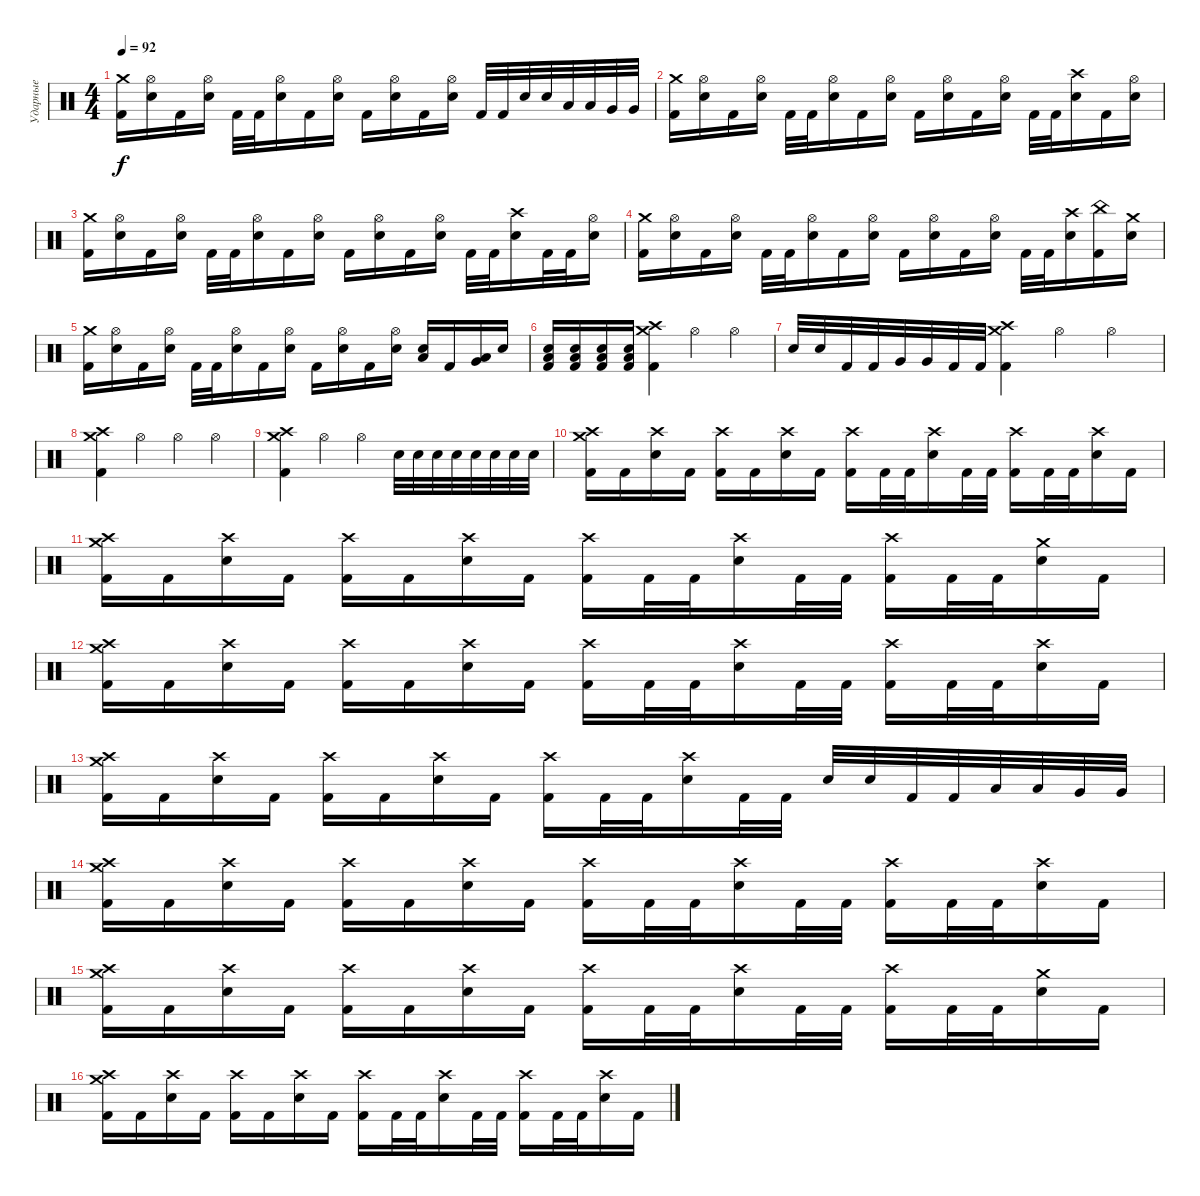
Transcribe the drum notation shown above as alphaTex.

\track ("Ударные" "Ударные") {instrument percussion}
\staff {score}
\articulation defaults
\ts (4 4)
\tempo 92
\clef neutral
\ks c
("Crash medium (hit)" "Kick (hit) 2").16{dy f} ("Hi-Hat (open)" "Electric Snare (hit)").16 "Kick (hit) 2".16 ("Hi-Hat (open)" "Electric Snare (hit)").16 "Kick (hit) 2".32 "Kick (hit) 2".32 ("Hi-Hat (open)" "Electric Snare (hit)").16 "Kick (hit) 2".16 ("Hi-Hat (open)" "Electric Snare (hit)").16 "Kick (hit) 2".16 ("Hi-Hat (open)" "Electric Snare (hit)").16 "Kick (hit) 2".16 ("Hi-Hat (open)" "Electric Snare (hit)").16 "Kick (hit) 2".32 "Kick (hit) 2".32 "Electric Snare (hit)".32 "Electric Snare (hit)".32 "Low Tom (hit)".32 "Low Tom (hit)".32 "Very Low Tom (hit)".32 "Very Low Tom (hit)".32 |
("Crash medium (hit)" "Kick (hit) 2").16 ("Hi-Hat (open)" "Electric Snare (hit)").16 "Kick (hit) 2".16 ("Hi-Hat (open)" "Electric Snare (hit)").16 "Kick (hit) 2".32 "Kick (hit) 2".32 ("Hi-Hat (open)" "Electric Snare (hit)").16 "Kick (hit) 2".16 ("Hi-Hat (open)" "Electric Snare (hit)").16 "Kick (hit) 2".16 ("Hi-Hat (open)" "Electric Snare (hit)").16 "Kick (hit) 2".16 ("Hi-Hat (open)" "Electric Snare (hit)").16 "Kick (hit) 2".32 "Kick (hit) 2".32 ("Crash high (hit)" "Electric Snare (hit)").16 "Kick (hit) 2".16 ("Hi-Hat (open)" "Electric Snare (hit)").16 |
("Crash medium (hit)" "Kick (hit) 2").16 ("Hi-Hat (open)" "Electric Snare (hit)").16 "Kick (hit) 2".16 ("Hi-Hat (open)" "Electric Snare (hit)").16 "Kick (hit) 2".32 "Kick (hit) 2".32 ("Hi-Hat (open)" "Electric Snare (hit)").16 "Kick (hit) 2".16 ("Hi-Hat (open)" "Electric Snare (hit)").16 "Kick (hit) 2".16 ("Hi-Hat (open)" "Electric Snare (hit)").16 "Kick (hit) 2".16 ("Hi-Hat (open)" "Electric Snare (hit)").16 "Kick (hit) 2".32 "Kick (hit) 2".32 ("Crash high (hit)" "Electric Snare (hit)").16 "Kick (hit) 2".32 "Kick (hit) 2".32 ("Hi-Hat (open)" "Electric Snare (hit)").16 |
("Crash medium (hit)" "Kick (hit) 2").16 ("Hi-Hat (open)" "Electric Snare (hit)").16 "Kick (hit) 2".16 ("Hi-Hat (open)" "Electric Snare (hit)").16 "Kick (hit) 2".32 "Kick (hit) 2".32 ("Hi-Hat (open)" "Electric Snare (hit)").16 "Kick (hit) 2".16 ("Hi-Hat (open)" "Electric Snare (hit)").16 "Kick (hit) 2".16 ("Hi-Hat (open)" "Electric Snare (hit)").16 "Kick (hit) 2".16 ("Hi-Hat (open)" "Electric Snare (hit)").16 "Kick (hit) 2".32 "Kick (hit) 2".32 ("Crash high (hit)" "Electric Snare (hit)").16 ("China (hit)" "Kick (hit) 2").16 ("Crash medium (hit)" "Electric Snare (hit)").16 |
("Crash medium (hit)" "Kick (hit) 2").16 ("Hi-Hat (open)" "Electric Snare (hit)").16 "Kick (hit) 2".16 ("Hi-Hat (open)" "Electric Snare (hit)").16 "Kick (hit) 2".32 "Kick (hit) 2".32 ("Hi-Hat (open)" "Electric Snare (hit)").16 "Kick (hit) 2".16 ("Hi-Hat (open)" "Electric Snare (hit)").16 "Kick (hit) 2".16 ("Hi-Hat (open)" "Electric Snare (hit)").16 "Kick (hit) 2".16 ("Hi-Hat (open)" "Electric Snare (hit)").16 ("Electric Snare (hit)" "Low Tom (hit)").16 "Kick (hit) 2".16 ("Low Floor Tom (hit)" "Very Low Tom (hit)").16 "Electric Snare (hit)".16 |
("Low Floor Tom (hit)" "Electric Snare (hit)" "Kick (hit) 2").16 ("Low Floor Tom (hit)" "Electric Snare (hit)" "Kick (hit) 2").16 ("Low Floor Tom (hit)" "Electric Snare (hit)" "Kick (hit) 2").16 ("Low Floor Tom (hit)" "Electric Snare (hit)" "Kick (hit) 2").16 ("Crash medium (hit)" "Crash high (hit)" "Kick (hit) 2").4 "Hi-Hat (open)".4 "Hi-Hat (open)".4 |
"Electric Snare (hit)".32 "Electric Snare (hit)".32 "Kick (hit) 2".32 "Kick (hit) 2".32 "Very Low Tom (hit)".32 "Very Low Tom (hit)".32 "Kick (hit) 2".32 "Kick (hit) 2".32 ("Crash medium (hit)" "Crash high (hit)" "Kick (hit) 2").4 "Hi-Hat (open)".4 "Hi-Hat (open)".4 |
("Crash medium (hit)" "Crash high (hit)" "Kick (hit) 2").4 "Hi-Hat (open)".4 "Hi-Hat (open)".4 "Hi-Hat (open)".4 |
("Crash medium (hit)" "Crash high (hit)" "Kick (hit) 2").4 "Hi-Hat (open)".4 "Hi-Hat (open)".4 "Electric Snare (hit)".32 "Electric Snare (hit)".32 "Electric Snare (hit)".32 "Electric Snare (hit)".32 "Electric Snare (hit)".32 "Electric Snare (hit)".32 "Electric Snare (hit)".32 "Electric Snare (hit)".32 |
("Crash medium (hit)" "Crash high (hit)" "Kick (hit) 2").16 "Kick (hit) 2".16 ("Crash high (hit)" "Electric Snare (hit)").16 "Kick (hit) 2".16 ("Crash high (hit)" "Kick (hit) 2").16 "Kick (hit) 2".16 ("Crash high (hit)" "Electric Snare (hit)").16 "Kick (hit) 2".16 ("Crash high (hit)" "Kick (hit) 2").16 "Kick (hit) 2".32 "Kick (hit) 2".32 ("Crash high (hit)" "Electric Snare (hit)").16 "Kick (hit) 2".32 "Kick (hit) 2".32 ("Crash high (hit)" "Kick (hit) 2").16 "Kick (hit) 2".32 "Kick (hit) 2".32 ("Crash high (hit)" "Electric Snare (hit)").16 "Kick (hit) 2".16 |
("Crash medium (hit)" "Crash high (hit)" "Kick (hit) 2").16 "Kick (hit) 2".16 ("Crash high (hit)" "Electric Snare (hit)").16 "Kick (hit) 2".16 ("Crash high (hit)" "Kick (hit) 2").16 "Kick (hit) 2".16 ("Crash high (hit)" "Electric Snare (hit)").16 "Kick (hit) 2".16 ("Crash high (hit)" "Kick (hit) 2").16 "Kick (hit) 2".32 "Kick (hit) 2".32 ("Crash high (hit)" "Electric Snare (hit)").16 "Kick (hit) 2".32 "Kick (hit) 2".32 ("Crash high (hit)" "Kick (hit) 2").16 "Kick (hit) 2".32 "Kick (hit) 2".32 ("Crash medium (hit)" "Electric Snare (hit)").16 "Kick (hit) 2".16 |
("Crash medium (hit)" "Crash high (hit)" "Kick (hit) 2").16 "Kick (hit) 2".16 ("Crash high (hit)" "Electric Snare (hit)").16 "Kick (hit) 2".16 ("Crash high (hit)" "Kick (hit) 2").16 "Kick (hit) 2".16 ("Crash high (hit)" "Electric Snare (hit)").16 "Kick (hit) 2".16 ("Crash high (hit)" "Kick (hit) 2").16 "Kick (hit) 2".32 "Kick (hit) 2".32 ("Crash high (hit)" "Electric Snare (hit)").16 "Kick (hit) 2".32 "Kick (hit) 2".32 ("Crash high (hit)" "Kick (hit) 2").16 "Kick (hit) 2".32 "Kick (hit) 2".32 ("Crash high (hit)" "Electric Snare (hit)").16 "Kick (hit) 2".16 |
("Crash medium (hit)" "Crash high (hit)" "Kick (hit) 2").16 "Kick (hit) 2".16 ("Crash high (hit)" "Electric Snare (hit)").16 "Kick (hit) 2".16 ("Crash high (hit)" "Kick (hit) 2").16 "Kick (hit) 2".16 ("Crash high (hit)" "Electric Snare (hit)").16 "Kick (hit) 2".16 ("Crash high (hit)" "Kick (hit) 2").16 "Kick (hit) 2".32 "Kick (hit) 2".32 ("Crash high (hit)" "Electric Snare (hit)").16 "Kick (hit) 2".32 "Kick (hit) 2".32 "Electric Snare (hit)".32 "Electric Snare (hit)".32 "Kick (hit) 2".32 "Kick (hit) 2".32 "Low Tom (hit)".32 "Low Tom (hit)".32 "Very Low Tom (hit)".32 "Very Low Tom (hit)".32 |
("Crash medium (hit)" "Crash high (hit)" "Kick (hit) 2").16 "Kick (hit) 2".16 ("Crash high (hit)" "Electric Snare (hit)").16 "Kick (hit) 2".16 ("Crash high (hit)" "Kick (hit) 2").16 "Kick (hit) 2".16 ("Crash high (hit)" "Electric Snare (hit)").16 "Kick (hit) 2".16 ("Crash high (hit)" "Kick (hit) 2").16 "Kick (hit) 2".32 "Kick (hit) 2".32 ("Crash high (hit)" "Electric Snare (hit)").16 "Kick (hit) 2".32 "Kick (hit) 2".32 ("Crash high (hit)" "Kick (hit) 2").16 "Kick (hit) 2".32 "Kick (hit) 2".32 ("Crash high (hit)" "Electric Snare (hit)").16 "Kick (hit) 2".16 |
("Crash medium (hit)" "Crash high (hit)" "Kick (hit) 2").16 "Kick (hit) 2".16 ("Crash high (hit)" "Electric Snare (hit)").16 "Kick (hit) 2".16 ("Crash high (hit)" "Kick (hit) 2").16 "Kick (hit) 2".16 ("Crash high (hit)" "Electric Snare (hit)").16 "Kick (hit) 2".16 ("Crash high (hit)" "Kick (hit) 2").16 "Kick (hit) 2".32 "Kick (hit) 2".32 ("Crash high (hit)" "Electric Snare (hit)").16 "Kick (hit) 2".32 "Kick (hit) 2".32 ("Crash high (hit)" "Kick (hit) 2").16 "Kick (hit) 2".32 "Kick (hit) 2".32 ("Crash medium (hit)" "Electric Snare (hit)").16 "Kick (hit) 2".16 |
("Crash medium (hit)" "Crash high (hit)" "Kick (hit) 2").16 "Kick (hit) 2".16 ("Crash high (hit)" "Electric Snare (hit)").16 "Kick (hit) 2".16 ("Crash high (hit)" "Kick (hit) 2").16 "Kick (hit) 2".16 ("Crash high (hit)" "Electric Snare (hit)").16 "Kick (hit) 2".16 ("Crash high (hit)" "Kick (hit) 2").16 "Kick (hit) 2".32 "Kick (hit) 2".32 ("Crash high (hit)" "Electric Snare (hit)").16 "Kick (hit) 2".32 "Kick (hit) 2".32 ("Crash high (hit)" "Kick (hit) 2").16 "Kick (hit) 2".32 "Kick (hit) 2".32 ("Crash high (hit)" "Electric Snare (hit)").16 "Kick (hit) 2".16
